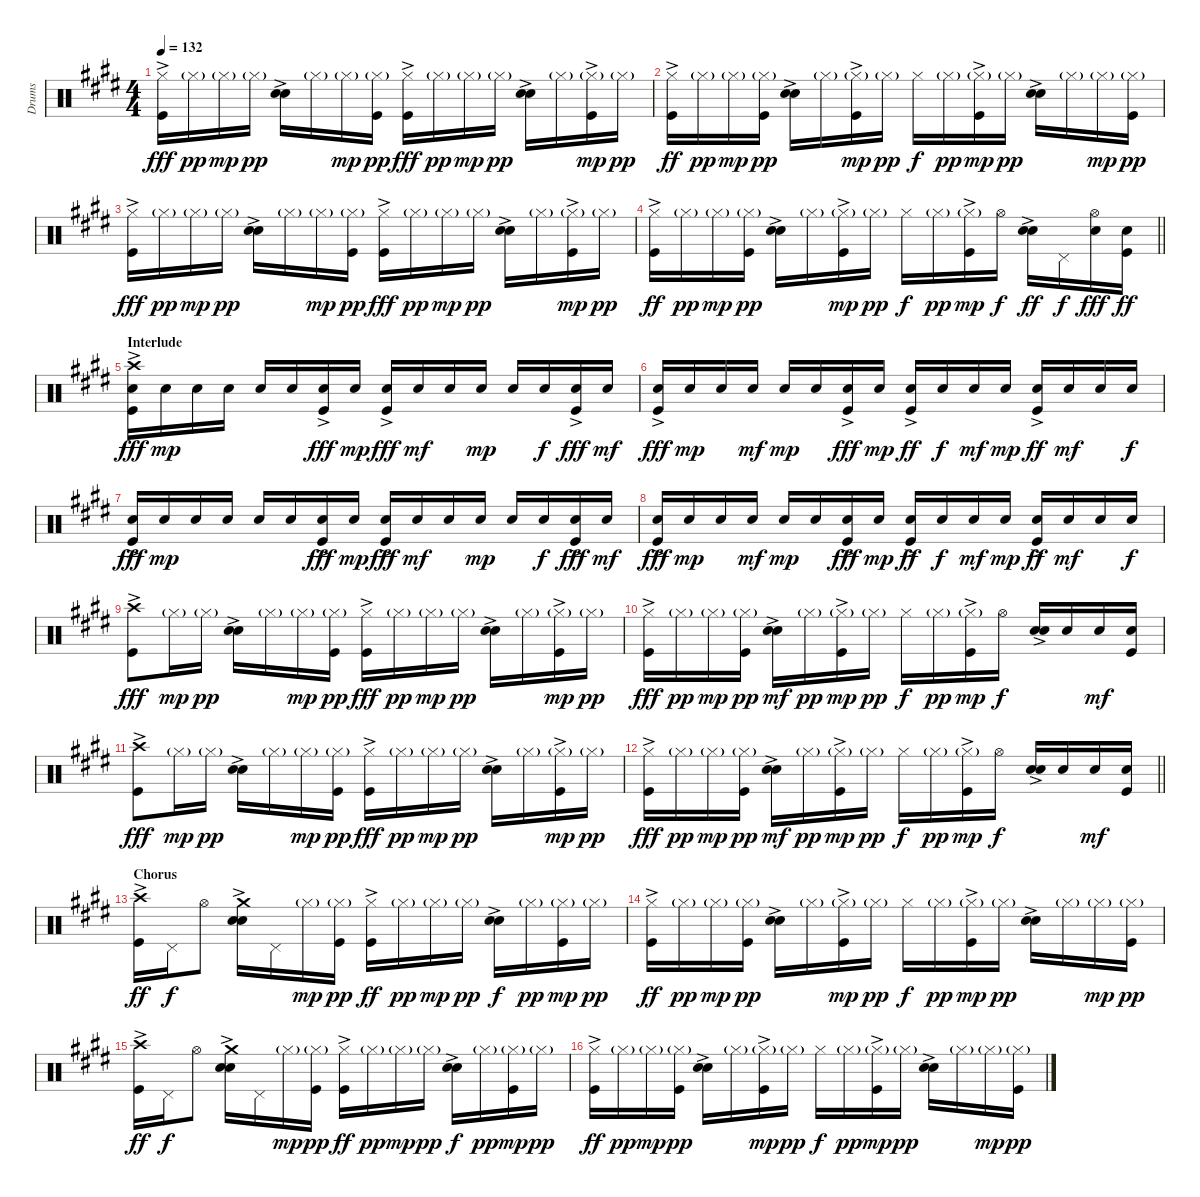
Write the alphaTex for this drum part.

\track ("Drums" "Drums") {instrument percussion}
\staff {score}
\articulation defaults
\ts (4 4)
\tempo 132
\clef neutral
\ks e
("Kick (hit)"{ac} "Hi-Hat (closed)").16{dy fff} "Hi-Hat (closed)"{g}.16{dy pp} "Hi-Hat (closed)"{g}.16{dy mp} "Hi-Hat (closed)"{g}.16{dy pp} ("Snare (hit) 2"{ac} "Electric Snare (hit)").16 "Hi-Hat (closed)"{g}.16 "Hi-Hat (closed)"{g}.16{dy mp} ("Kick (hit)" "Hi-Hat (closed)"{g}).16{dy pp} ("Kick (hit)"{ac} "Hi-Hat (closed)").16{dy fff} "Hi-Hat (closed)"{g}.16{dy pp} "Hi-Hat (closed)"{g}.16{dy mp} "Hi-Hat (closed)"{g}.16{dy pp} ("Snare (hit) 2"{ac} "Electric Snare (hit)").16 "Hi-Hat (closed)"{g}.16 ("Kick (hit)"{ac} "Hi-Hat (closed)"{g}).16{dy mp} "Hi-Hat (closed)"{g}.16{dy pp} |
("Kick (hit)"{ac} "Hi-Hat (closed)").16{dy ff} "Hi-Hat (closed)"{g}.16{dy pp} "Hi-Hat (closed)"{g}.16{dy mp} ("Kick (hit)" "Hi-Hat (closed)"{g}).16{dy pp} ("Snare (hit) 2"{ac} "Electric Snare (hit)").16 "Hi-Hat (closed)"{g}.16 ("Kick (hit)"{ac} "Hi-Hat (closed)"{g}).16{dy mp} "Hi-Hat (closed)"{g}.16{dy pp} "Hi-Hat (closed)".16{dy f} "Hi-Hat (closed)"{g}.16{dy pp} ("Kick (hit)"{ac} "Hi-Hat (closed)"{g}).16{dy mp} "Hi-Hat (closed)"{g}.16{dy pp} ("Snare (hit) 2"{ac} "Electric Snare (hit)").16 "Hi-Hat (closed)"{g}.16 "Hi-Hat (closed)"{g}.16{dy mp} ("Kick (hit)" "Hi-Hat (closed)"{g}).16{dy pp} |
("Kick (hit)"{ac} "Hi-Hat (closed)").16{dy fff} "Hi-Hat (closed)"{g}.16{dy pp} "Hi-Hat (closed)"{g}.16{dy mp} "Hi-Hat (closed)"{g}.16{dy pp} ("Snare (hit) 2"{ac} "Electric Snare (hit)").16 "Hi-Hat (closed)"{g}.16 "Hi-Hat (closed)"{g}.16{dy mp} ("Kick (hit)" "Hi-Hat (closed)"{g}).16{dy pp} ("Kick (hit)"{ac} "Hi-Hat (closed)").16{dy fff} "Hi-Hat (closed)"{g}.16{dy pp} "Hi-Hat (closed)"{g}.16{dy mp} "Hi-Hat (closed)"{g}.16{dy pp} ("Snare (hit) 2"{ac} "Electric Snare (hit)").16 "Hi-Hat (closed)"{g}.16 ("Kick (hit)"{ac} "Hi-Hat (closed)"{g}).16{dy mp} "Hi-Hat (closed)"{g}.16{dy pp} |
\barLineRight lightlight
("Kick (hit)"{ac} "Hi-Hat (closed)").16{dy ff} "Hi-Hat (closed)"{g}.16{dy pp} "Hi-Hat (closed)"{g}.16{dy mp} ("Kick (hit)" "Hi-Hat (closed)"{g}).16{dy pp} ("Snare (hit) 2"{ac} "Electric Snare (hit)").16 "Hi-Hat (closed)"{g}.16 ("Kick (hit)"{ac} "Hi-Hat (closed)"{g}).16{dy mp} "Hi-Hat (closed)"{g}.16{dy pp} "Hi-Hat (closed)".16{dy f} "Hi-Hat (closed)"{g}.16{dy pp} ("Kick (hit)"{ac} "Hi-Hat (closed)"{g}).16{dy mp} "Hi-Hat (open)".16{dy f} ("Snare (hit) 2"{ac} "Electric Snare (hit)").16{dy ff} "Pedal Hi-Hat (hit)".16{dy f} ("Snare (hit) 2" "Hi-Hat (open)").16{dy fff} ("Kick (hit)" "Snare (hit) 2").16{dy ff} |
\section ("" "Interlude")
("Kick (hit)"{ac} "Snare (hit) 2" "Crash high (hit)").16{dy fff} "Snare (hit) 2".16{dy mp} "Snare (hit) 2".16 "Snare (hit) 2".16 "Snare (hit) 2".16 "Snare (hit) 2".16 ("Kick (hit)"{ac} "Snare (hit) 2").16{dy fff} "Snare (hit) 2".16{dy mp} ("Kick (hit)"{ac} "Snare (hit) 2").16{dy fff} "Snare (hit) 2".16{dy mf} "Snare (hit) 2".16 "Snare (hit) 2".16{dy mp} "Snare (hit) 2".16 "Snare (hit) 2".16{dy f} ("Kick (hit)"{ac} "Snare (hit) 2").16{dy fff} "Snare (hit) 2".16{dy mf} |
("Kick (hit)"{ac} "Snare (hit) 2").16{dy fff} "Snare (hit) 2".16{dy mp} "Snare (hit) 2".16 "Snare (hit) 2".16{dy mf} "Snare (hit) 2".16{dy mp} "Snare (hit) 2".16 ("Kick (hit)"{ac} "Snare (hit) 2").16{dy fff} "Snare (hit) 2".16{dy mp} ("Kick (hit)"{ac} "Snare (hit) 2").16{dy ff} "Snare (hit) 2".16{dy f} "Snare (hit) 2".16{dy mf} "Snare (hit) 2".16{dy mp} ("Kick (hit)"{ac} "Snare (hit) 2").16{dy ff} "Snare (hit) 2".16{dy mf} "Snare (hit) 2".16 "Snare (hit) 2".16{dy f} |
("Kick (hit)"{ac} "Snare (hit) 2").16{dy fff} "Snare (hit) 2".16{dy mp} "Snare (hit) 2".16 "Snare (hit) 2".16 "Snare (hit) 2".16 "Snare (hit) 2".16 ("Kick (hit)"{ac} "Snare (hit) 2").16{dy fff} "Snare (hit) 2".16{dy mp} ("Kick (hit)"{ac} "Snare (hit) 2").16{dy fff} "Snare (hit) 2".16{dy mf} "Snare (hit) 2".16 "Snare (hit) 2".16{dy mp} "Snare (hit) 2".16 "Snare (hit) 2".16{dy f} ("Kick (hit)"{ac} "Snare (hit) 2").16{dy fff} "Snare (hit) 2".16{dy mf} |
("Kick (hit)"{ac} "Snare (hit) 2").16{dy fff} "Snare (hit) 2".16{dy mp} "Snare (hit) 2".16 "Snare (hit) 2".16{dy mf} "Snare (hit) 2".16{dy mp} "Snare (hit) 2".16 ("Kick (hit)"{ac} "Snare (hit) 2").16{dy fff} "Snare (hit) 2".16{dy mp} ("Kick (hit)"{ac} "Snare (hit) 2").16{dy ff} "Snare (hit) 2".16{dy f} "Snare (hit) 2".16{dy mf} "Snare (hit) 2".16{dy mp} ("Kick (hit)"{ac} "Snare (hit) 2").16{dy ff} "Snare (hit) 2".16{dy mf} "Snare (hit) 2".16 "Snare (hit) 2".16{dy f} |
("Kick (hit)"{ac} "Crash high (hit)").8{dy fff} "Hi-Hat (closed)"{g}.16{dy mp} "Hi-Hat (closed)"{g}.16{dy pp} ("Snare (hit) 2"{ac} "Electric Snare (hit)").16 "Hi-Hat (closed)"{g}.16 "Hi-Hat (closed)"{g}.16{dy mp} ("Kick (hit)" "Hi-Hat (closed)"{g}).16{dy pp} ("Kick (hit)"{ac} "Hi-Hat (closed)").16{dy fff} "Hi-Hat (closed)"{g}.16{dy pp} "Hi-Hat (closed)"{g}.16{dy mp} "Hi-Hat (closed)"{g}.16{dy pp} ("Snare (hit) 2"{ac} "Electric Snare (hit)").16 "Hi-Hat (closed)"{g}.16 ("Kick (hit)"{ac} "Hi-Hat (closed)"{g}).16{dy mp} "Hi-Hat (closed)"{g}.16{dy pp} |
("Kick (hit)"{ac} "Hi-Hat (closed)").16{dy fff} "Hi-Hat (closed)"{g}.16{dy pp} "Hi-Hat (closed)"{g}.16{dy mp} ("Kick (hit)" "Hi-Hat (closed)"{g}).16{dy pp} ("Snare (hit) 2"{ac} "Electric Snare (hit)").16{dy mf} "Hi-Hat (closed)"{g}.16{dy pp} ("Kick (hit)"{ac} "Hi-Hat (closed)"{g}).16{dy mp} "Hi-Hat (closed)"{g}.16{dy pp} "Hi-Hat (closed)".16{dy f} "Hi-Hat (closed)"{g}.16{dy pp} ("Kick (hit)"{ac} "Hi-Hat (closed)"{g}).16{dy mp} "Hi-Hat (open)".16{dy f} ("Snare (hit) 2"{ac} "Electric Snare (hit)").16 "Snare (hit) 2".16 "Snare (hit) 2".16{dy mf} ("Kick (hit)" "Snare (hit) 2").16 |
("Kick (hit)"{ac} "Crash high (hit)").8{dy fff} "Hi-Hat (closed)"{g}.16{dy mp} "Hi-Hat (closed)"{g}.16{dy pp} ("Snare (hit) 2"{ac} "Electric Snare (hit)").16 "Hi-Hat (closed)"{g}.16 "Hi-Hat (closed)"{g}.16{dy mp} ("Kick (hit)" "Hi-Hat (closed)"{g}).16{dy pp} ("Kick (hit)"{ac} "Hi-Hat (closed)").16{dy fff} "Hi-Hat (closed)"{g}.16{dy pp} "Hi-Hat (closed)"{g}.16{dy mp} "Hi-Hat (closed)"{g}.16{dy pp} ("Snare (hit) 2"{ac} "Electric Snare (hit)").16 "Hi-Hat (closed)"{g}.16 ("Kick (hit)"{ac} "Hi-Hat (closed)"{g}).16{dy mp} "Hi-Hat (closed)"{g}.16{dy pp} |
\barLineRight lightlight
("Kick (hit)"{ac} "Hi-Hat (closed)").16{dy fff} "Hi-Hat (closed)"{g}.16{dy pp} "Hi-Hat (closed)"{g}.16{dy mp} ("Kick (hit)" "Hi-Hat (closed)"{g}).16{dy pp} ("Snare (hit) 2"{ac} "Electric Snare (hit)").16{dy mf} "Hi-Hat (closed)"{g}.16{dy pp} ("Kick (hit)"{ac} "Hi-Hat (closed)"{g}).16{dy mp} "Hi-Hat (closed)"{g}.16{dy pp} "Hi-Hat (closed)".16{dy f} "Hi-Hat (closed)"{g}.16{dy pp} ("Kick (hit)"{ac} "Hi-Hat (closed)"{g}).16{dy mp} "Hi-Hat (open)".16{dy f} ("Snare (hit) 2"{ac} "Electric Snare (hit)").16 "Snare (hit) 2".16 "Snare (hit) 2".16{dy mf} ("Kick (hit)" "Snare (hit) 2").16 |
\section ("" "Chorus")
("Kick (hit)"{ac} "Crash high (hit)").16{dy ff} "Pedal Hi-Hat (hit)".16{dy f} "Hi-Hat (open)".8 ("Snare (hit) 2"{ac} "Electric Snare (hit)" "Crash medium (hit)").16 "Pedal Hi-Hat (hit)".16 "Hi-Hat (closed)"{g}.16{dy mp} ("Kick (hit)" "Hi-Hat (closed)"{g}).16{dy pp} ("Kick (hit)"{ac} "Hi-Hat (closed)").16{dy ff} "Hi-Hat (closed)"{g}.16{dy pp} "Hi-Hat (closed)"{g}.16{dy mp} "Hi-Hat (closed)"{g}.16{dy pp} ("Snare (hit) 2"{ac} "Electric Snare (hit)").16{dy f} "Hi-Hat (closed)"{g}.16{dy pp} ("Kick (hit)" "Hi-Hat (closed)"{g}).16{dy mp} "Hi-Hat (closed)"{g}.16{dy pp} |
("Kick (hit)"{ac} "Hi-Hat (closed)").16{dy ff} "Hi-Hat (closed)"{g}.16{dy pp} "Hi-Hat (closed)"{g}.16{dy mp} ("Kick (hit)" "Hi-Hat (closed)"{g}).16{dy pp} ("Snare (hit) 2"{ac} "Electric Snare (hit)").16 "Hi-Hat (closed)"{g}.16 ("Kick (hit)"{ac} "Hi-Hat (closed)"{g}).16{dy mp} "Hi-Hat (closed)"{g}.16{dy pp} "Hi-Hat (closed)".16{dy f} "Hi-Hat (closed)"{g}.16{dy pp} ("Kick (hit)"{ac} "Hi-Hat (closed)"{g}).16{dy mp} "Hi-Hat (closed)"{g}.16{dy pp} ("Snare (hit) 2"{ac} "Electric Snare (hit)").16 "Hi-Hat (closed)"{g}.16 "Hi-Hat (closed)"{g}.16{dy mp} ("Kick (hit)" "Hi-Hat (closed)"{g}).16{dy pp} |
("Kick (hit)"{ac} "Crash high (hit)").16{dy ff} "Pedal Hi-Hat (hit)".16{dy f} "Hi-Hat (open)".8 ("Snare (hit) 2"{ac} "Electric Snare (hit)" "Crash medium (hit)").16 "Pedal Hi-Hat (hit)".16 "Hi-Hat (closed)"{g}.16{dy mp} ("Kick (hit)" "Hi-Hat (closed)"{g}).16{dy pp} ("Kick (hit)"{ac} "Hi-Hat (closed)").16{dy ff} "Hi-Hat (closed)"{g}.16{dy pp} "Hi-Hat (closed)"{g}.16{dy mp} "Hi-Hat (closed)"{g}.16{dy pp} ("Snare (hit) 2"{ac} "Electric Snare (hit)").16{dy f} "Hi-Hat (closed)"{g}.16{dy pp} ("Kick (hit)" "Hi-Hat (closed)"{g}).16{dy mp} "Hi-Hat (closed)"{g}.16{dy pp} |
("Kick (hit)"{ac} "Hi-Hat (closed)").16{dy ff} "Hi-Hat (closed)"{g}.16{dy pp} "Hi-Hat (closed)"{g}.16{dy mp} ("Kick (hit)" "Hi-Hat (closed)"{g}).16{dy pp} ("Snare (hit) 2"{ac} "Electric Snare (hit)").16 "Hi-Hat (closed)"{g}.16 ("Kick (hit)"{ac} "Hi-Hat (closed)"{g}).16{dy mp} "Hi-Hat (closed)"{g}.16{dy pp} "Hi-Hat (closed)".16{dy f} "Hi-Hat (closed)"{g}.16{dy pp} ("Kick (hit)"{ac} "Hi-Hat (closed)"{g}).16{dy mp} "Hi-Hat (closed)"{g}.16{dy pp} ("Snare (hit) 2"{ac} "Electric Snare (hit)").16 "Hi-Hat (closed)"{g}.16 "Hi-Hat (closed)"{g}.16{dy mp} ("Kick (hit)" "Hi-Hat (closed)"{g}).16{dy pp}
